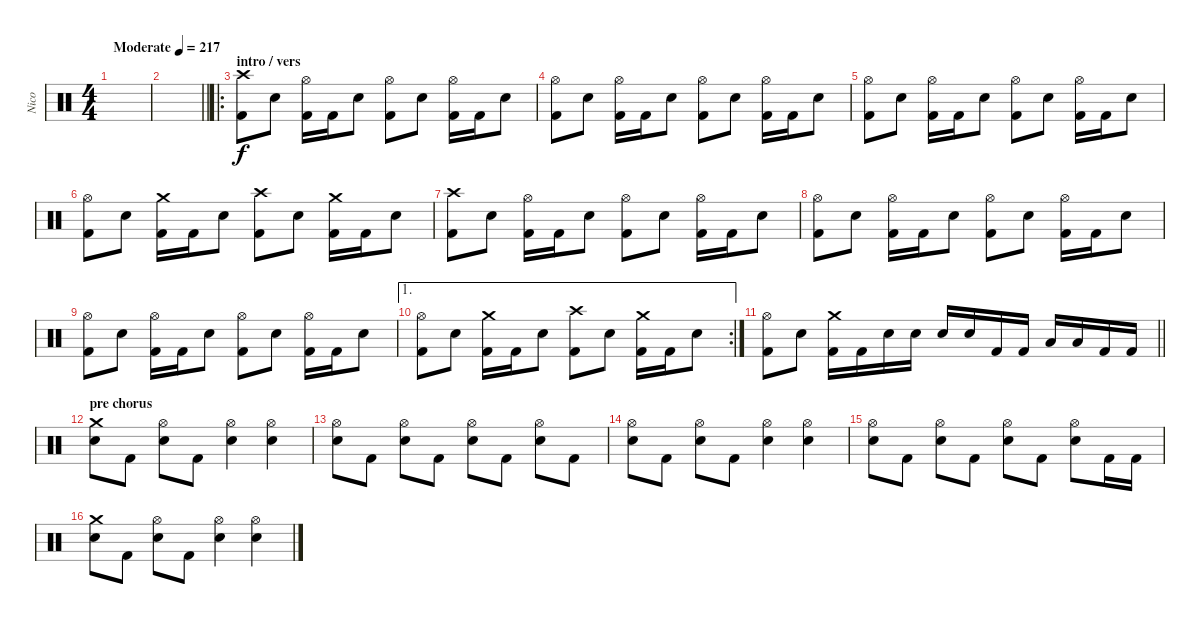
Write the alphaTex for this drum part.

\track ("Nico" "Nico") {instrument percussion}
\staff {score}
\articulation defaults
\ts (4 4)
\tempo (217 "Moderate")
\clef neutral
\ks c
|
\barLineRight lightlight
|
\ro
\section ("" "intro / vers")
("Crash high (hit)" "Kick (hit) 2").8 "Electric Snare (hit)".8 ("Hi-Hat (open)" "Kick (hit) 2").16 "Kick (hit) 2".16 "Electric Snare (hit)".8 ("Hi-Hat (open)" "Kick (hit) 2").8 "Electric Snare (hit)".8 ("Hi-Hat (open)" "Kick (hit) 2").16 "Kick (hit) 2".16 "Electric Snare (hit)".8 |
("Hi-Hat (open)" "Kick (hit) 2").8 "Electric Snare (hit)".8 ("Hi-Hat (open)" "Kick (hit) 2").16 "Kick (hit) 2".16 "Electric Snare (hit)".8 ("Hi-Hat (open)" "Kick (hit) 2").8 "Electric Snare (hit)".8 ("Hi-Hat (open)" "Kick (hit) 2").16 "Kick (hit) 2".16 "Electric Snare (hit)".8 |
("Hi-Hat (open)" "Kick (hit) 2").8 "Electric Snare (hit)".8 ("Hi-Hat (open)" "Kick (hit) 2").16 "Kick (hit) 2".16 "Electric Snare (hit)".8 ("Hi-Hat (open)" "Kick (hit) 2").8 "Electric Snare (hit)".8 ("Hi-Hat (open)" "Kick (hit) 2").16 "Kick (hit) 2".16 "Electric Snare (hit)".8 |
("Hi-Hat (open)" "Kick (hit) 2").8 "Electric Snare (hit)".8 ("Crash medium (hit)" "Kick (hit) 2").16 "Kick (hit) 2".16 "Electric Snare (hit)".8 ("Crash high (hit)" "Kick (hit) 2").8 "Electric Snare (hit)".8 ("Crash medium (hit)" "Kick (hit) 2").16 "Kick (hit) 2".16 "Electric Snare (hit)".8 |
("Crash high (hit)" "Kick (hit) 2").8 "Electric Snare (hit)".8 ("Hi-Hat (open)" "Kick (hit) 2").16 "Kick (hit) 2".16 "Electric Snare (hit)".8 ("Hi-Hat (open)" "Kick (hit) 2").8 "Electric Snare (hit)".8 ("Hi-Hat (open)" "Kick (hit) 2").16 "Kick (hit) 2".16 "Electric Snare (hit)".8 |
("Hi-Hat (open)" "Kick (hit) 2").8 "Electric Snare (hit)".8 ("Hi-Hat (open)" "Kick (hit) 2").16 "Kick (hit) 2".16 "Electric Snare (hit)".8 ("Hi-Hat (open)" "Kick (hit) 2").8 "Electric Snare (hit)".8 ("Hi-Hat (open)" "Kick (hit) 2").16 "Kick (hit) 2".16 "Electric Snare (hit)".8 |
("Hi-Hat (open)" "Kick (hit) 2").8 "Electric Snare (hit)".8 ("Hi-Hat (open)" "Kick (hit) 2").16 "Kick (hit) 2".16 "Electric Snare (hit)".8 ("Hi-Hat (open)" "Kick (hit) 2").8 "Electric Snare (hit)".8 ("Hi-Hat (open)" "Kick (hit) 2").16 "Kick (hit) 2".16 "Electric Snare (hit)".8 |
\ae 1
\rc 2
("Hi-Hat (open)" "Kick (hit) 2").8 "Electric Snare (hit)".8 ("Crash medium (hit)" "Kick (hit) 2").16 "Kick (hit) 2".16 "Electric Snare (hit)".8 ("Crash high (hit)" "Kick (hit) 2").8 "Electric Snare (hit)".8 ("Crash medium (hit)" "Kick (hit) 2").16 "Kick (hit) 2".16 "Electric Snare (hit)".8 |
\barLineRight lightlight
("Hi-Hat (open)" "Kick (hit) 2").8 "Electric Snare (hit)".8 ("Crash medium (hit)" "Kick (hit) 2").16 "Kick (hit) 2".16 "Electric Snare (hit)".16 "Electric Snare (hit)".16 "Electric Snare (hit)".16 "Electric Snare (hit)".16 "Kick (hit) 2".16 "Kick (hit) 2".16 "Low Tom (hit)".16 "Low Tom (hit)".16 "Kick (hit) 2".16 "Kick (hit) 2".16 |
\section ("" "pre chorus")
("Crash medium (hit)" "Electric Snare (hit)").8{balance 8} "Kick (hit) 2".8 ("Hi-Hat (open)" "Electric Snare (hit)").8 "Kick (hit) 2".8 ("Hi-Hat (open)" "Electric Snare (hit)").4 ("Hi-Hat (open)" "Electric Snare (hit)").4 |
("Hi-Hat (open)" "Electric Snare (hit)").8 "Kick (hit) 2".8 ("Hi-Hat (open)" "Electric Snare (hit)").8 "Kick (hit) 2".8 ("Hi-Hat (open)" "Electric Snare (hit)").8 "Kick (hit) 2".8 ("Hi-Hat (open)" "Electric Snare (hit)").8 "Kick (hit) 2".8 |
("Hi-Hat (open)" "Electric Snare (hit)").8 "Kick (hit) 2".8 ("Hi-Hat (open)" "Electric Snare (hit)").8 "Kick (hit) 2".8 ("Hi-Hat (open)" "Electric Snare (hit)").4 ("Hi-Hat (open)" "Electric Snare (hit)").4 |
("Hi-Hat (open)" "Electric Snare (hit)").8 "Kick (hit) 2".8 ("Hi-Hat (open)" "Electric Snare (hit)").8 "Kick (hit) 2".8 ("Hi-Hat (open)" "Electric Snare (hit)").8 "Kick (hit) 2".8 ("Hi-Hat (open)" "Electric Snare (hit)").8 "Kick (hit) 2".16 "Kick (hit) 2".16 |
("Crash medium (hit)" "Electric Snare (hit)").8{balance 8} "Kick (hit) 2".8 ("Hi-Hat (open)" "Electric Snare (hit)").8 "Kick (hit) 2".8 ("Hi-Hat (open)" "Electric Snare (hit)").4 ("Hi-Hat (open)" "Electric Snare (hit)").4
